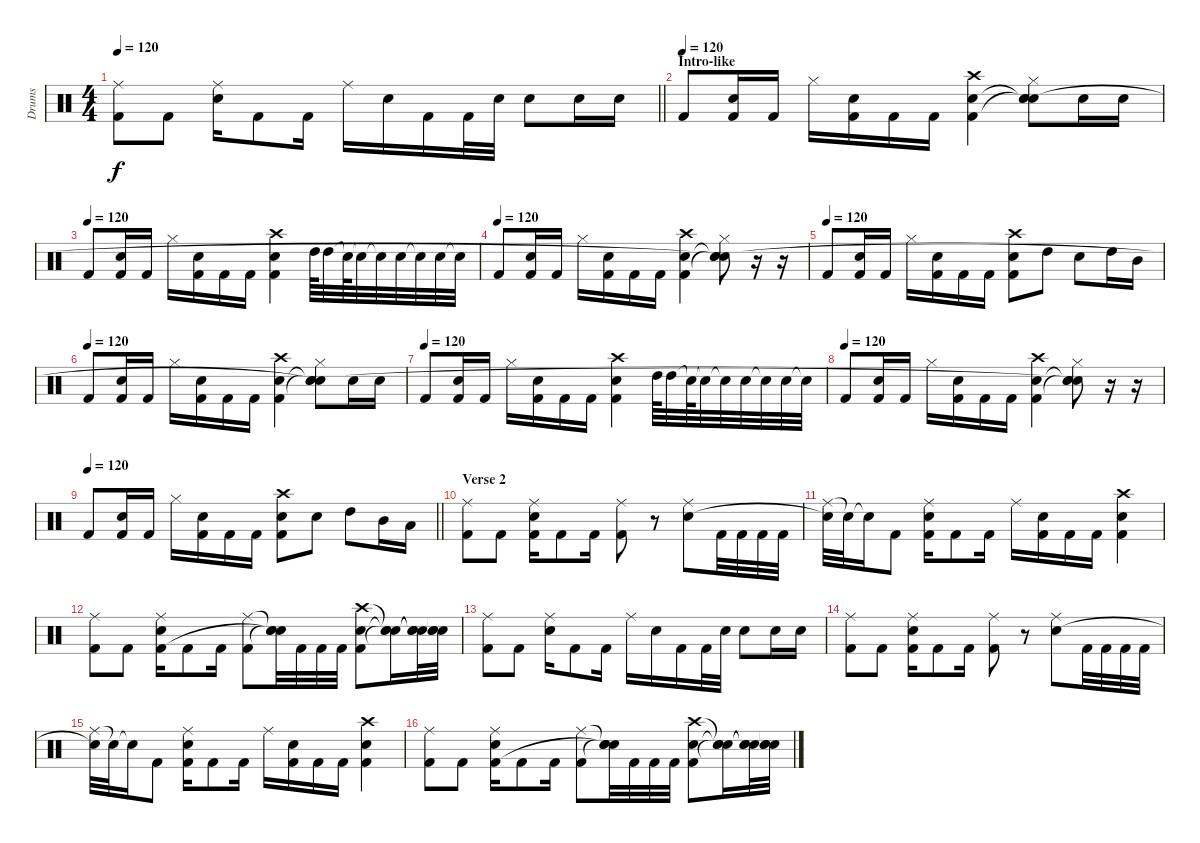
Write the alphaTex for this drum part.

\track ("Drums" "Drums") {instrument percussion}
\staff {score}
\articulation defaults
\ts (4 4)
\tempo 120
\clef neutral
\barLineRight lightlight
\ks c
("Ride (middle)" "Kick (hit) 2").8{dy f} "Kick (hit) 2".8 ("Ride (middle)" "Electric Snare (hit)").16 "Kick (hit) 2".8 "Kick (hit) 2".16 "Ride (middle)".16 "Electric Snare (hit)".16 "Kick (hit) 2".16 "Kick (hit) 2".32 "Electric Snare (hit)".32 "Electric Snare (hit)".8 "Electric Snare (hit)".16 "Electric Snare (hit)".16 |
\section ("" "Intro-like")
\tempo (120)
"Kick (hit) 2".8 ("Electric Snare (hit)" "Kick (hit) 2").16 "Kick (hit) 2".16 "Hi-Hat (closed)".16 ("Electric Snare (hit)" "Kick (hit) 2").16 "Kick (hit) 2".16 "Kick (hit) 2".16 ("Crash high (hit)" "Electric Snare (hit)" "Kick (hit) 2").4 ("Hi-Hat (closed)" "Snare (hit)"{t} "Snare (hit)"{t} "Snare (hit)").8 "Electric Snare (hit)".16 "Electric Snare (hit)".16 |
\tempo (120)
"Kick (hit) 2".8 ("Electric Snare (hit)" "Kick (hit) 2").16 "Kick (hit) 2".16 "Hi-Hat (closed)".16 ("Electric Snare (hit)" "Kick (hit) 2").16 "Kick (hit) 2".16 "Kick (hit) 2".16 ("Crash high (hit)" "Electric Snare (hit)" "Kick (hit) 2").4 "High Tom (hit)".64 "High Tom (hit)".32 "Snare (hit)"{t}.64 "Snare (hit)"{t}.32 "Snare (hit)"{t}.32 "Electric Snare (hit)".32 "Snare (hit)"{t}.32 "Electric Snare (hit)".32 "Snare (hit)"{t}.32 |
\tempo (120)
"Kick (hit) 2".8 ("Electric Snare (hit)" "Kick (hit) 2").16 "Kick (hit) 2".16 "Hi-Hat (closed)".16 ("Electric Snare (hit)" "Kick (hit) 2").16 "Kick (hit) 2".16 "Kick (hit) 2".16 ("Crash high (hit)" "Electric Snare (hit)" "Kick (hit) 2").4 ("Hi-Hat (closed)" "Snare (hit)"{t} "Snare (hit)"{t} "Snare (hit)"{t}).8 r.16 r.16 |
\tempo (120)
"Kick (hit) 2".8 ("Electric Snare (hit)" "Kick (hit) 2").16 "Kick (hit) 2".16 "Hi-Hat (closed)".16 ("Electric Snare (hit)" "Kick (hit) 2").16 "Kick (hit) 2".16 "Kick (hit) 2".16 ("Crash high (hit)" "Electric Snare (hit)" "Kick (hit) 2").8 "High Tom (hit)".8 "Electric Snare (hit)".8 "High Tom (hit)".16 "Mid Tom (hit)".16 |
\tempo (120)
"Kick (hit) 2".8 ("Electric Snare (hit)" "Kick (hit) 2").16 "Kick (hit) 2".16 "Hi-Hat (closed)".16 ("Electric Snare (hit)" "Kick (hit) 2").16 "Kick (hit) 2".16 "Kick (hit) 2".16 ("Crash high (hit)" "Electric Snare (hit)" "Kick (hit) 2").4 ("Hi-Hat (closed)" "Snare (hit)"{t} "Snare (hit)"{t} "Snare (hit)"{t}).8 "Electric Snare (hit)".16 "Electric Snare (hit)".16 |
\tempo (120)
"Kick (hit) 2".8 ("Electric Snare (hit)" "Kick (hit) 2").16 "Kick (hit) 2".16 "Hi-Hat (closed)".16 ("Electric Snare (hit)" "Kick (hit) 2").16 "Kick (hit) 2".16 "Kick (hit) 2".16 ("Crash high (hit)" "Electric Snare (hit)" "Kick (hit) 2").4 "High Tom (hit)".64 "High Tom (hit)".32 "Snare (hit)"{t}.64 "Snare (hit)"{t}.32 "Snare (hit)"{t}.32 "Electric Snare (hit)".32 "Snare (hit)"{t}.32 "Electric Snare (hit)".32 "Snare (hit)"{t}.32 |
\tempo (120)
"Kick (hit) 2".8 ("Electric Snare (hit)" "Kick (hit) 2").16 "Kick (hit) 2".16 "Hi-Hat (closed)".16 ("Electric Snare (hit)" "Kick (hit) 2").16 "Kick (hit) 2".16 "Kick (hit) 2".16 ("Crash high (hit)" "Electric Snare (hit)" "Kick (hit) 2").4 ("Hi-Hat (closed)" "Snare (hit)"{t} "Snare (hit)"{t} "Snare (hit)"{t}).8 r.16 r.16 |
\tempo 120
\barLineRight lightlight "Kick (hit) 2".8
("Electric Snare (hit)" "Kick (hit) 2").16 "Kick (hit) 2".16 "Hi-Hat (closed)".16 ("Electric Snare (hit)" "Kick (hit) 2").16 "Kick (hit) 2".16 "Kick (hit) 2".16 ("Crash high (hit)" "Electric Snare (hit)" "Kick (hit) 2").8 "Electric Snare (hit)".8 "High Tom (hit)".8 "Mid Tom (hit)".16 "Low Tom (hit)".16 |
\section ("" "Verse 2")
("Ride (middle)" "Kick (hit) 2").8 "Kick (hit) 2".8 ("Ride (middle)" "Electric Snare (hit)" "Kick (hit) 2").16 "Kick (hit) 2".8 "Kick (hit) 2".16 ("Ride (middle)" "Kick (hit) 2").8 r.8 ("Ride (middle)" "Electric Snare (hit)").8 "Kick (hit) 2".32 "Kick (hit) 2".32 "Kick (hit) 2".32 "Kick (hit) 2".32 |
("Ride (middle)" "Snare (hit)"{t}).32 "Snare (hit)"{t}.32 "Snare (hit)"{t}.16 "Kick (hit) 2".8 ("Ride (middle)" "Electric Snare (hit)" "Kick (hit) 2").16 "Kick (hit) 2".8 "Kick (hit) 2".16 "Ride (middle)".16 ("Electric Snare (hit)" "Kick (hit) 2").16 "Kick (hit) 2".16 "Kick (hit) 2".16 ("Crash high (hit)" "Electric Snare (hit)" "Kick (hit) 2").4 |
("Ride (middle)" "Kick (hit) 2").8 "Kick (hit) 2".8 ("Ride (middle)" "Electric Snare (hit)" "Kick (hit) 2").16 "Kick (hit) 2".8 "Kick (hit) 2".16 ("Ride (middle)" "Kick (hit) 2").8 ("Snare (hit)"{t} "Snare (hit)"{t} "Snare (hit)"{t}).32 "Kick (hit) 2".32 "Kick (hit) 2".32 "Kick (hit) 2".32 ("Crash high (hit)" "Electric Snare (hit)" "Kick (hit) 2").8 ("Snare (hit)"{t} "Snare (hit)"{t} "Snare (hit)"{t}).16 ("Snare (hit)"{t} "Snare (hit)"{t} "Snare (hit)"{t}).32 ("Snare (hit)"{t} "Snare (hit)"{t} "Snare (hit)"{t}).32 |
("Ride (middle)" "Kick (hit) 2").8 "Kick (hit) 2".8 ("Ride (middle)" "Electric Snare (hit)").16 "Kick (hit) 2".8 "Kick (hit) 2".16 "Ride (middle)".16 "Electric Snare (hit)".16 "Kick (hit) 2".16 "Kick (hit) 2".32 "Electric Snare (hit)".32 "Electric Snare (hit)".8 "Electric Snare (hit)".16 "Electric Snare (hit)".16 |
("Ride (middle)" "Kick (hit) 2").8 "Kick (hit) 2".8 ("Ride (middle)" "Electric Snare (hit)" "Kick (hit) 2").16 "Kick (hit) 2".8 "Kick (hit) 2".16 ("Ride (middle)" "Kick (hit) 2").8 r.8 ("Ride (middle)" "Electric Snare (hit)").8 "Kick (hit) 2".32 "Kick (hit) 2".32 "Kick (hit) 2".32 "Kick (hit) 2".32 |
("Ride (middle)" "Snare (hit)"{t}).32 "Snare (hit)"{t}.32 "Snare (hit)"{t}.16 "Kick (hit) 2".8 ("Ride (middle)" "Electric Snare (hit)" "Kick (hit) 2").16 "Kick (hit) 2".8 "Kick (hit) 2".16 "Ride (middle)".16 ("Electric Snare (hit)" "Kick (hit) 2").16 "Kick (hit) 2".16 "Kick (hit) 2".16 ("Crash high (hit)" "Electric Snare (hit)" "Kick (hit) 2").4 |
("Ride (middle)" "Kick (hit) 2").8 "Kick (hit) 2".8 ("Ride (middle)" "Electric Snare (hit)" "Kick (hit) 2").16 "Kick (hit) 2".8 "Kick (hit) 2".16 ("Ride (middle)" "Kick (hit) 2").8 ("Snare (hit)"{t} "Snare (hit)"{t} "Snare (hit)"{t}).32 "Kick (hit) 2".32 "Kick (hit) 2".32 "Kick (hit) 2".32 ("Crash high (hit)" "Electric Snare (hit)" "Kick (hit) 2").8 ("Snare (hit)"{t} "Snare (hit)"{t} "Snare (hit)"{t}).16 ("Snare (hit)"{t} "Snare (hit)"{t} "Snare (hit)"{t}).32 ("Snare (hit)"{t} "Snare (hit)"{t} "Snare (hit)"{t}).32
